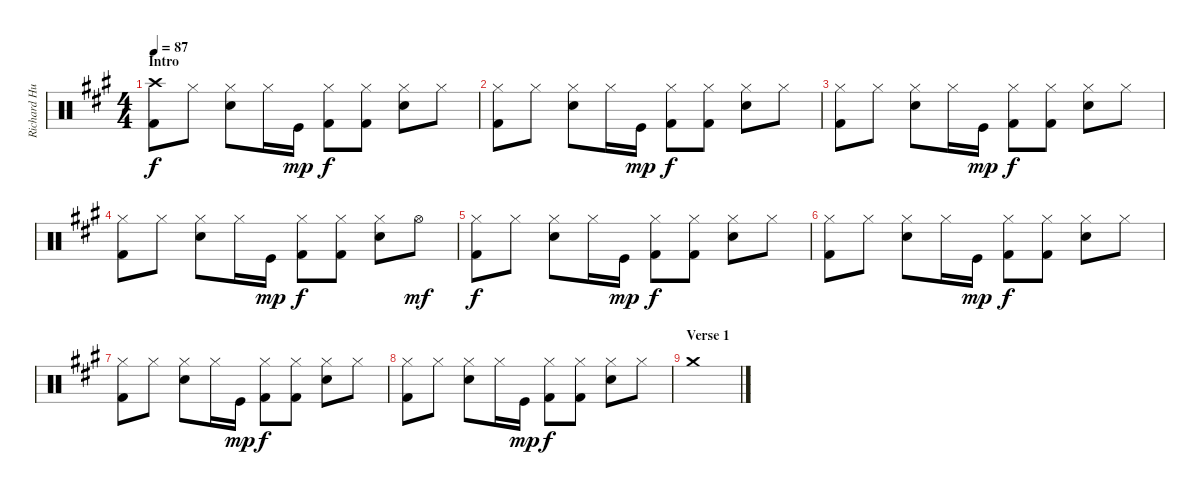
\track ("Richard Hughes (Drums)" "Richard Hu") {instrument percussion}
\staff {score}
\articulation defaults
\ts (4 4)
\section ("" "Intro")
\tempo 87
\clef neutral
\ks a
("Crash high (hit)" "Kick (hit) 2").8{dy f} "Hi-Hat (closed)".8 ("Hi-Hat (closed)" "Snare (hit) 2").8 "Hi-Hat (closed)".16 "Kick (hit)".16{dy mp} ("Hi-Hat (closed)" "Kick (hit) 2").8{dy f} ("Hi-Hat (closed)" "Kick (hit) 2").8 ("Hi-Hat (closed)" "Snare (hit) 2").8 "Hi-Hat (closed)".8 |
("Hi-Hat (closed)" "Kick (hit) 2").8 "Hi-Hat (closed)".8 ("Hi-Hat (closed)" "Snare (hit) 2").8 "Hi-Hat (closed)".16 "Kick (hit)".16{dy mp} ("Hi-Hat (closed)" "Kick (hit) 2").8{dy f} ("Hi-Hat (closed)" "Kick (hit) 2").8 ("Hi-Hat (closed)" "Snare (hit) 2").8 "Hi-Hat (closed)".8 |
("Hi-Hat (closed)" "Kick (hit) 2").8 "Hi-Hat (closed)".8 ("Hi-Hat (closed)" "Snare (hit) 2").8 "Hi-Hat (closed)".16 "Kick (hit)".16{dy mp} ("Hi-Hat (closed)" "Kick (hit) 2").8{dy f} ("Hi-Hat (closed)" "Kick (hit) 2").8 ("Hi-Hat (closed)" "Snare (hit) 2").8 "Hi-Hat (closed)".8 |
("Hi-Hat (closed)" "Kick (hit) 2").8 "Hi-Hat (closed)".8 ("Hi-Hat (closed)" "Snare (hit) 2").8 "Hi-Hat (closed)".16 "Kick (hit)".16{dy mp} ("Hi-Hat (closed)" "Kick (hit) 2").8{dy f} ("Hi-Hat (closed)" "Kick (hit) 2").8 ("Hi-Hat (closed)" "Snare (hit) 2").8 "Hi-Hat (open)".8{dy mf} |
("Hi-Hat (closed)" "Kick (hit) 2").8{dy f} "Hi-Hat (closed)".8 ("Hi-Hat (closed)" "Snare (hit) 2").8 "Hi-Hat (closed)".16 "Kick (hit)".16{dy mp} ("Hi-Hat (closed)" "Kick (hit) 2").8{dy f} ("Hi-Hat (closed)" "Kick (hit) 2").8 ("Hi-Hat (closed)" "Snare (hit) 2").8 "Hi-Hat (closed)".8 |
("Hi-Hat (closed)" "Kick (hit) 2").8 "Hi-Hat (closed)".8 ("Hi-Hat (closed)" "Snare (hit) 2").8 "Hi-Hat (closed)".16 "Kick (hit)".16{dy mp} ("Hi-Hat (closed)" "Kick (hit) 2").8{dy f} ("Hi-Hat (closed)" "Kick (hit) 2").8 ("Hi-Hat (closed)" "Snare (hit) 2").8 "Hi-Hat (closed)".8 |
("Hi-Hat (closed)" "Kick (hit) 2").8 "Hi-Hat (closed)".8 ("Hi-Hat (closed)" "Snare (hit) 2").8 "Hi-Hat (closed)".16 "Kick (hit)".16{dy mp} ("Hi-Hat (closed)" "Kick (hit) 2").8{dy f} ("Hi-Hat (closed)" "Kick (hit) 2").8 ("Hi-Hat (closed)" "Snare (hit) 2").8 "Hi-Hat (closed)".8 |
("Hi-Hat (closed)" "Kick (hit) 2").8 "Hi-Hat (closed)".8 ("Hi-Hat (closed)" "Snare (hit) 2").8 "Hi-Hat (closed)".16 "Kick (hit)".16{dy mp} ("Hi-Hat (closed)" "Kick (hit) 2").8{dy f} ("Hi-Hat (closed)" "Kick (hit) 2").8 ("Hi-Hat (closed)" "Snare (hit) 2").8 "Hi-Hat (closed)".8 |
\section ("" "Verse 1 ")
"Crash medium (hit)".1
